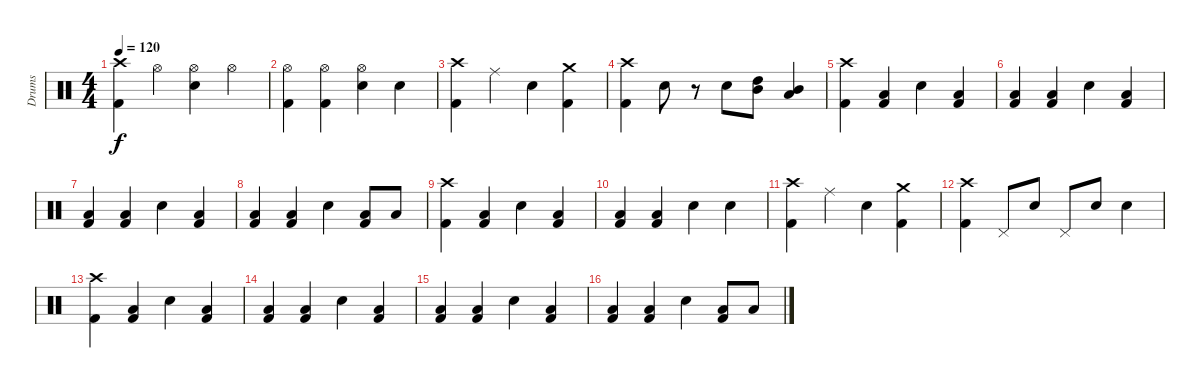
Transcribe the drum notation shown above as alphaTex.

\track ("Drums" "Drums") {instrument percussion}
\staff {score}
\articulation defaults
\ts (4 4)
\tempo 120
\clef neutral
\ks c
("Kick (hit) 2" "Crash high (hit)").4{dy f} "Hi-Hat (open)".4 ("Hi-Hat (open)" "Snare (hit) 2").4 "Hi-Hat (open)".4 |
("Hi-Hat (open)" "Kick (hit) 2").4 ("Hi-Hat (open)" "Kick (hit) 2").4 ("Hi-Hat (open)" "Snare (hit) 2").4 "Snare (hit) 2".4 |
("Kick (hit) 2" "Crash high (hit)").4 "Ride (middle)".4 "Snare (hit) 2".4 ("Kick (hit) 2" "Crash medium (hit)").4 |
("Crash high (hit)" "Kick (hit) 2").4 "Snare (hit) 2".8 r.8 "Snare (hit) 2".8 ("High Tom (hit)" "Mid Tom (hit)").8 ("Mid Tom (hit)" "Low Tom (hit)").4 |
("Kick (hit) 2" "Crash high (hit)").4 ("Kick (hit) 2" "Low Floor Tom (hit)").4 "Snare (hit) 2".4 ("Low Floor Tom (hit)" "Kick (hit) 2").4 |
("Low Floor Tom (hit)" "Kick (hit) 2").4 ("Low Floor Tom (hit)" "Kick (hit) 2").4 "Snare (hit) 2".4 ("Low Floor Tom (hit)" "Kick (hit) 2").4 |
("Kick (hit) 2" "Low Floor Tom (hit)").4 ("Kick (hit) 2" "Low Floor Tom (hit)").4 "Snare (hit) 2".4 ("Low Floor Tom (hit)" "Kick (hit) 2").4 |
("Low Floor Tom (hit)" "Kick (hit) 2").4 ("Low Floor Tom (hit)" "Kick (hit) 2").4 "Snare (hit) 2".4 ("Low Tom (hit)" "Kick (hit) 2").8 "Low Floor Tom (hit)".8 |
("Kick (hit) 2" "Crash high (hit)").4 ("Kick (hit) 2" "Low Floor Tom (hit)").4 "Snare (hit) 2".4 ("Low Floor Tom (hit)" "Kick (hit) 2").4 |
("Low Floor Tom (hit)" "Kick (hit) 2").4 ("Low Floor Tom (hit)" "Kick (hit) 2").4 "Snare (hit) 2".4 "Snare (hit) 2".4 |
("Kick (hit) 2" "Crash high (hit)").4 "Ride (middle)".4 "Snare (hit) 2".4 ("Kick (hit) 2" "Crash medium (hit)").4 |
("Crash high (hit)" "Kick (hit) 2").4 "Pedal Hi-Hat (hit)".8 "Snare (hit) 2".8 "Pedal Hi-Hat (hit)".8 "Snare (hit) 2".8 "Snare (hit) 2".4 |
("Kick (hit) 2" "Crash high (hit)").4 ("Kick (hit) 2" "Low Floor Tom (hit)").4 "Snare (hit) 2".4 ("Low Floor Tom (hit)" "Kick (hit) 2").4 |
("Low Floor Tom (hit)" "Kick (hit) 2").4 ("Low Floor Tom (hit)" "Kick (hit) 2").4 "Snare (hit) 2".4 ("Low Floor Tom (hit)" "Kick (hit) 2").4 |
("Kick (hit) 2" "Low Floor Tom (hit)").4 ("Kick (hit) 2" "Low Floor Tom (hit)").4 "Snare (hit) 2".4 ("Low Floor Tom (hit)" "Kick (hit) 2").4 |
("Low Floor Tom (hit)" "Kick (hit) 2").4 ("Low Floor Tom (hit)" "Kick (hit) 2").4 "Snare (hit) 2".4 ("Low Tom (hit)" "Kick (hit) 2").8 "Low Floor Tom (hit)".8
